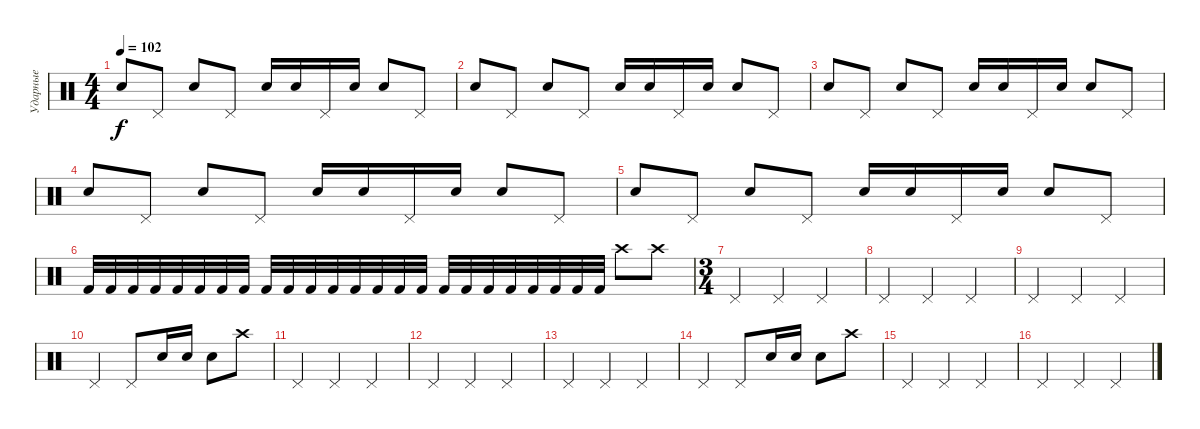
\track ("Ударные" "Ударные") {instrument percussion}
\staff {score}
\articulation defaults
\ts (4 4)
\tempo 102
\clef neutral
\ks c "Snare (hit) 2".8{dy f} "Pedal Hi-Hat (hit)".8 "Snare (hit) 2".8 "Pedal Hi-Hat (hit)".8 "Snare (hit) 2".16 "Snare (hit) 2".16 "Pedal Hi-Hat (hit)".16 "Snare (hit) 2".16 "Snare (hit) 2".8 "Pedal Hi-Hat (hit)".8
|
"Snare (hit) 2".8 "Pedal Hi-Hat (hit)".8 "Snare (hit) 2".8 "Pedal Hi-Hat (hit)".8 "Snare (hit) 2".16 "Snare (hit) 2".16 "Pedal Hi-Hat (hit)".16 "Snare (hit) 2".16 "Snare (hit) 2".8 "Pedal Hi-Hat (hit)".8 |
"Snare (hit) 2".8 "Pedal Hi-Hat (hit)".8 "Snare (hit) 2".8 "Pedal Hi-Hat (hit)".8 "Snare (hit) 2".16 "Snare (hit) 2".16 "Pedal Hi-Hat (hit)".16 "Snare (hit) 2".16 "Snare (hit) 2".8 "Pedal Hi-Hat (hit)".8 |
"Snare (hit) 2".8 "Pedal Hi-Hat (hit)".8 "Snare (hit) 2".8 "Pedal Hi-Hat (hit)".8 "Snare (hit) 2".16 "Snare (hit) 2".16 "Pedal Hi-Hat (hit)".16 "Snare (hit) 2".16 "Snare (hit) 2".8 "Pedal Hi-Hat (hit)".8 |
"Snare (hit) 2".8 "Pedal Hi-Hat (hit)".8 "Snare (hit) 2".8 "Pedal Hi-Hat (hit)".8 "Snare (hit) 2".16 "Snare (hit) 2".16 "Pedal Hi-Hat (hit)".16 "Snare (hit) 2".16 "Snare (hit) 2".8 "Pedal Hi-Hat (hit)".8 |
"Kick (hit) 2".32 "Kick (hit) 2".32 "Kick (hit) 2".32 "Kick (hit) 2".32 "Kick (hit) 2".32 "Kick (hit) 2".32 "Kick (hit) 2".32 "Kick (hit) 2".32 "Kick (hit) 2".32 "Kick (hit) 2".32 "Kick (hit) 2".32 "Kick (hit) 2".32 "Kick (hit) 2".32 "Kick (hit) 2".32 "Kick (hit) 2".32 "Kick (hit) 2".32 "Kick (hit) 2".32 "Kick (hit) 2".32 "Kick (hit) 2".32 "Kick (hit) 2".32 "Kick (hit) 2".32 "Kick (hit) 2".32 "Kick (hit) 2".32 "Kick (hit) 2".32 "Crash high (hit)".8 "Crash high (hit)".8 |
\ts (3 4)
"Pedal Hi-Hat (hit)".4 "Pedal Hi-Hat (hit)".4 "Pedal Hi-Hat (hit)".4 |
"Pedal Hi-Hat (hit)".4 "Pedal Hi-Hat (hit)".4 "Pedal Hi-Hat (hit)".4 |
"Pedal Hi-Hat (hit)".4 "Pedal Hi-Hat (hit)".4 "Pedal Hi-Hat (hit)".4 |
"Pedal Hi-Hat (hit)".4 "Pedal Hi-Hat (hit)".8 "Snare (hit) 2".16 "Snare (hit) 2".16 "Snare (hit) 2".8 "Crash high (hit)".8 |
"Pedal Hi-Hat (hit)".4 "Pedal Hi-Hat (hit)".4 "Pedal Hi-Hat (hit)".4 |
"Pedal Hi-Hat (hit)".4 "Pedal Hi-Hat (hit)".4 "Pedal Hi-Hat (hit)".4 |
"Pedal Hi-Hat (hit)".4 "Pedal Hi-Hat (hit)".4 "Pedal Hi-Hat (hit)".4 |
"Pedal Hi-Hat (hit)".4 "Pedal Hi-Hat (hit)".8 "Snare (hit) 2".16 "Snare (hit) 2".16 "Snare (hit) 2".8 "Crash high (hit)".8 |
"Pedal Hi-Hat (hit)".4 "Pedal Hi-Hat (hit)".4 "Pedal Hi-Hat (hit)".4 |
"Pedal Hi-Hat (hit)".4 "Pedal Hi-Hat (hit)".4 "Pedal Hi-Hat (hit)".4
